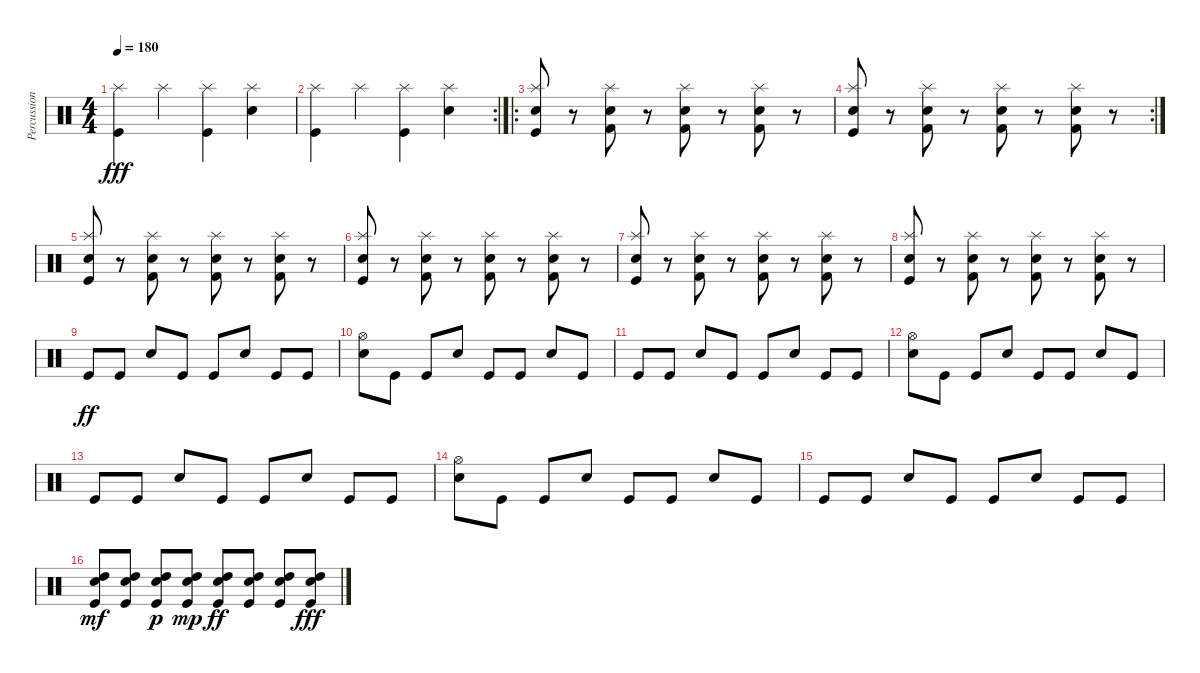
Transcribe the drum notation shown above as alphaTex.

\track ("Percussion" "Percussion") {instrument percussion}
\staff {score}
\articulation defaults
\ts (4 4)
\tempo 180
\clef neutral
\ks c
("Kick (hit)" "Splash (hit)").4{dy fff} "Splash (hit)".4 ("Kick (hit)" "Splash (hit)").4 ("Snare (hit) 2" "Splash (hit)").4 |
\rc 2
("Kick (hit)" "Splash (hit)").4 "Splash (hit)".4 ("Kick (hit)" "Splash (hit)").4 ("Snare (hit) 2" "Splash (hit)").4 |
\ro
("Kick (hit)" "Snare (hit) 2" "Splash (hit)").8 r.8 ("Snare (hit) 2" "Kick (hit) 2" "Splash (hit)").8 r.8 ("Snare (hit) 2" "Kick (hit) 2" "Splash (hit)").8 r.8 ("Snare (hit) 2" "Kick (hit) 2" "Splash (hit)").8 r.8 |
\rc 2
("Kick (hit)" "Snare (hit) 2" "Splash (hit)").8 r.8 ("Snare (hit) 2" "Kick (hit) 2" "Splash (hit)").8 r.8 ("Snare (hit) 2" "Kick (hit) 2" "Splash (hit)").8 r.8 ("Snare (hit) 2" "Kick (hit) 2" "Splash (hit)").8 r.8 |
("Kick (hit)" "Snare (hit) 2" "Splash (hit)").8 r.8 ("Snare (hit) 2" "Kick (hit) 2" "Splash (hit)").8 r.8 ("Snare (hit) 2" "Kick (hit) 2" "Splash (hit)").8 r.8 ("Snare (hit) 2" "Kick (hit) 2" "Splash (hit)").8 r.8 |
("Kick (hit)" "Snare (hit) 2" "Splash (hit)").8 r.8 ("Snare (hit) 2" "Kick (hit) 2" "Splash (hit)").8 r.8 ("Snare (hit) 2" "Kick (hit) 2" "Splash (hit)").8 r.8 ("Snare (hit) 2" "Kick (hit) 2" "Splash (hit)").8 r.8 |
("Kick (hit)" "Snare (hit) 2" "Splash (hit)").8 r.8 ("Snare (hit) 2" "Kick (hit) 2" "Splash (hit)").8 r.8 ("Snare (hit) 2" "Kick (hit) 2" "Splash (hit)").8 r.8 ("Snare (hit) 2" "Kick (hit) 2" "Splash (hit)").8 r.8 |
("Kick (hit)" "Snare (hit) 2" "Splash (hit)").8 r.8 ("Snare (hit) 2" "Kick (hit) 2" "Splash (hit)").8 r.8 ("Snare (hit) 2" "Kick (hit) 2" "Splash (hit)").8 r.8 ("Snare (hit) 2" "Kick (hit) 2" "Splash (hit)").8 r.8 |
"Kick (hit)".8{dy ff} "Kick (hit)".8 "Snare (hit) 2".8 "Kick (hit)".8 "Kick (hit)".8 "Snare (hit) 2".8 "Kick (hit)".8 "Kick (hit)".8 |
("Snare (hit) 2" "Hi-Hat (open)").8 "Kick (hit)".8 "Kick (hit)".8 "Snare (hit) 2".8 "Kick (hit)".8 "Kick (hit)".8 "Snare (hit) 2".8 "Kick (hit)".8 |
"Kick (hit)".8 "Kick (hit)".8 "Snare (hit) 2".8 "Kick (hit)".8 "Kick (hit)".8 "Snare (hit) 2".8 "Kick (hit)".8 "Kick (hit)".8 |
("Snare (hit) 2" "Hi-Hat (open)").8 "Kick (hit)".8 "Kick (hit)".8 "Snare (hit) 2".8 "Kick (hit)".8 "Kick (hit)".8 "Snare (hit) 2".8 "Kick (hit)".8 |
"Kick (hit)".8 "Kick (hit)".8 "Snare (hit) 2".8 "Kick (hit)".8 "Kick (hit)".8 "Snare (hit) 2".8 "Kick (hit)".8 "Kick (hit)".8 |
("Snare (hit) 2" "Hi-Hat (open)").8 "Kick (hit)".8 "Kick (hit)".8 "Snare (hit) 2".8 "Kick (hit)".8 "Kick (hit)".8 "Snare (hit) 2".8 "Kick (hit)".8 |
"Kick (hit)".8 "Kick (hit)".8 "Snare (hit) 2".8 "Kick (hit)".8 "Kick (hit)".8 "Snare (hit) 2".8 "Kick (hit)".8 "Kick (hit)".8 |
("Snare (hit) 2" "Kick (hit)" "High Tom (hit)").8{dy mf} ("Snare (hit) 2" "Kick (hit)" "High Tom (hit)").8 ("Snare (hit) 2" "Kick (hit)" "High Tom (hit)").8{dy p} ("Snare (hit) 2" "Kick (hit)" "High Tom (hit)").8{dy mp} ("Snare (hit) 2" "Kick (hit)" "High Tom (hit)").8{dy ff} ("Snare (hit) 2" "Kick (hit)" "High Tom (hit)").8 ("Snare (hit) 2" "Kick (hit)" "High Tom (hit)").8 ("Snare (hit) 2" "Kick (hit)" "High Tom (hit)").8{dy fff}
